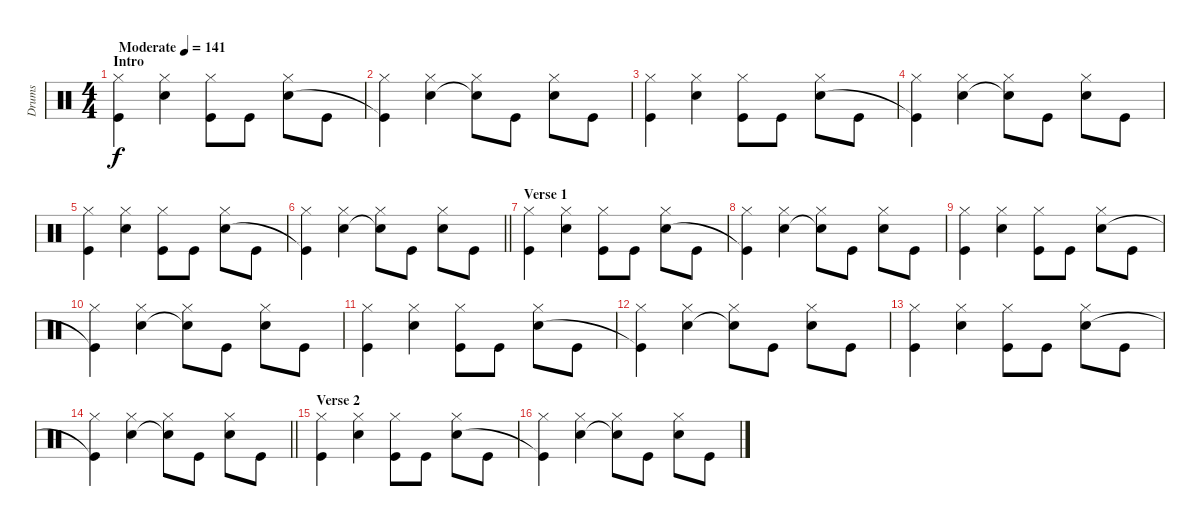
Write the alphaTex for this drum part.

\track ("Drums" "Drums") {instrument percussion}
\staff {score}
\articulation defaults
\ts (4 4)
\section ("" "Intro")
\tempo (141 "Moderate")
\clef neutral
\ks c
("Kick (hit)" "Hi-Hat (closed)").4{dy f} ("Snare (hit) 2" "Hi-Hat (closed)").4 ("Hi-Hat (closed)" "Kick (hit)").8 "Kick (hit)".8 ("Hi-Hat (closed)" "Snare (hit) 2").8 "Kick (hit)".8 |
("Hi-Hat (closed)" "Kick (hit)"{t}).4 ("Hi-Hat (closed)" "Snare (hit) 2").4 ("Hi-Hat (closed)" "Snare (hit) 2"{t}).8 "Kick (hit)".8 ("Hi-Hat (closed)" "Snare (hit) 2").8 "Kick (hit)".8 |
("Kick (hit)" "Hi-Hat (closed)").4 ("Snare (hit) 2" "Hi-Hat (closed)").4 ("Hi-Hat (closed)" "Kick (hit)").8 "Kick (hit)".8 ("Hi-Hat (closed)" "Snare (hit) 2").8 "Kick (hit)".8 |
("Hi-Hat (closed)" "Kick (hit)"{t}).4 ("Hi-Hat (closed)" "Snare (hit) 2").4 ("Hi-Hat (closed)" "Snare (hit) 2"{t}).8 "Kick (hit)".8 ("Hi-Hat (closed)" "Snare (hit) 2").8 "Kick (hit)".8 |
("Kick (hit)" "Hi-Hat (closed)").4 ("Snare (hit) 2" "Hi-Hat (closed)").4 ("Hi-Hat (closed)" "Kick (hit)").8 "Kick (hit)".8 ("Hi-Hat (closed)" "Snare (hit) 2").8 "Kick (hit)".8 |
\barLineRight lightlight
("Hi-Hat (closed)" "Kick (hit)"{t}).4 ("Hi-Hat (closed)" "Snare (hit) 2").4 ("Hi-Hat (closed)" "Snare (hit) 2"{t}).8 "Kick (hit)".8 ("Hi-Hat (closed)" "Snare (hit) 2").8 "Kick (hit)".8 |
\section ("" "Verse 1")
("Kick (hit)" "Hi-Hat (closed)").4 ("Snare (hit) 2" "Hi-Hat (closed)").4 ("Hi-Hat (closed)" "Kick (hit)").8 "Kick (hit)".8 ("Hi-Hat (closed)" "Snare (hit) 2").8 "Kick (hit)".8 |
("Hi-Hat (closed)" "Kick (hit)"{t}).4 ("Hi-Hat (closed)" "Snare (hit) 2").4 ("Hi-Hat (closed)" "Snare (hit) 2"{t}).8 "Kick (hit)".8 ("Hi-Hat (closed)" "Snare (hit) 2").8 "Kick (hit)".8 |
("Kick (hit)" "Hi-Hat (closed)").4 ("Snare (hit) 2" "Hi-Hat (closed)").4 ("Hi-Hat (closed)" "Kick (hit)").8 "Kick (hit)".8 ("Hi-Hat (closed)" "Snare (hit) 2").8 "Kick (hit)".8 |
("Hi-Hat (closed)" "Kick (hit)"{t}).4 ("Hi-Hat (closed)" "Snare (hit) 2").4 ("Hi-Hat (closed)" "Snare (hit) 2"{t}).8 "Kick (hit)".8 ("Hi-Hat (closed)" "Snare (hit) 2").8 "Kick (hit)".8 |
("Kick (hit)" "Hi-Hat (closed)").4 ("Snare (hit) 2" "Hi-Hat (closed)").4 ("Hi-Hat (closed)" "Kick (hit)").8 "Kick (hit)".8 ("Hi-Hat (closed)" "Snare (hit) 2").8 "Kick (hit)".8 |
("Hi-Hat (closed)" "Kick (hit)"{t}).4 ("Hi-Hat (closed)" "Snare (hit) 2").4 ("Hi-Hat (closed)" "Snare (hit) 2"{t}).8 "Kick (hit)".8 ("Hi-Hat (closed)" "Snare (hit) 2").8 "Kick (hit)".8 |
("Kick (hit)" "Hi-Hat (closed)").4 ("Snare (hit) 2" "Hi-Hat (closed)").4 ("Hi-Hat (closed)" "Kick (hit)").8 "Kick (hit)".8 ("Hi-Hat (closed)" "Snare (hit) 2").8 "Kick (hit)".8 |
\barLineRight lightlight
("Hi-Hat (closed)" "Kick (hit)"{t}).4 ("Hi-Hat (closed)" "Snare (hit) 2").4 ("Hi-Hat (closed)" "Snare (hit) 2"{t}).8 "Kick (hit)".8 ("Hi-Hat (closed)" "Snare (hit) 2").8 "Kick (hit)".8 |
\section ("" "Verse 2")
("Kick (hit)" "Hi-Hat (closed)").4 ("Snare (hit) 2" "Hi-Hat (closed)").4 ("Hi-Hat (closed)" "Kick (hit)").8 "Kick (hit)".8 ("Hi-Hat (closed)" "Snare (hit) 2").8 "Kick (hit)".8 |
("Hi-Hat (closed)" "Kick (hit)"{t}).4 ("Hi-Hat (closed)" "Snare (hit) 2").4 ("Hi-Hat (closed)" "Snare (hit) 2"{t}).8 "Kick (hit)".8 ("Hi-Hat (closed)" "Snare (hit) 2").8 "Kick (hit)".8
